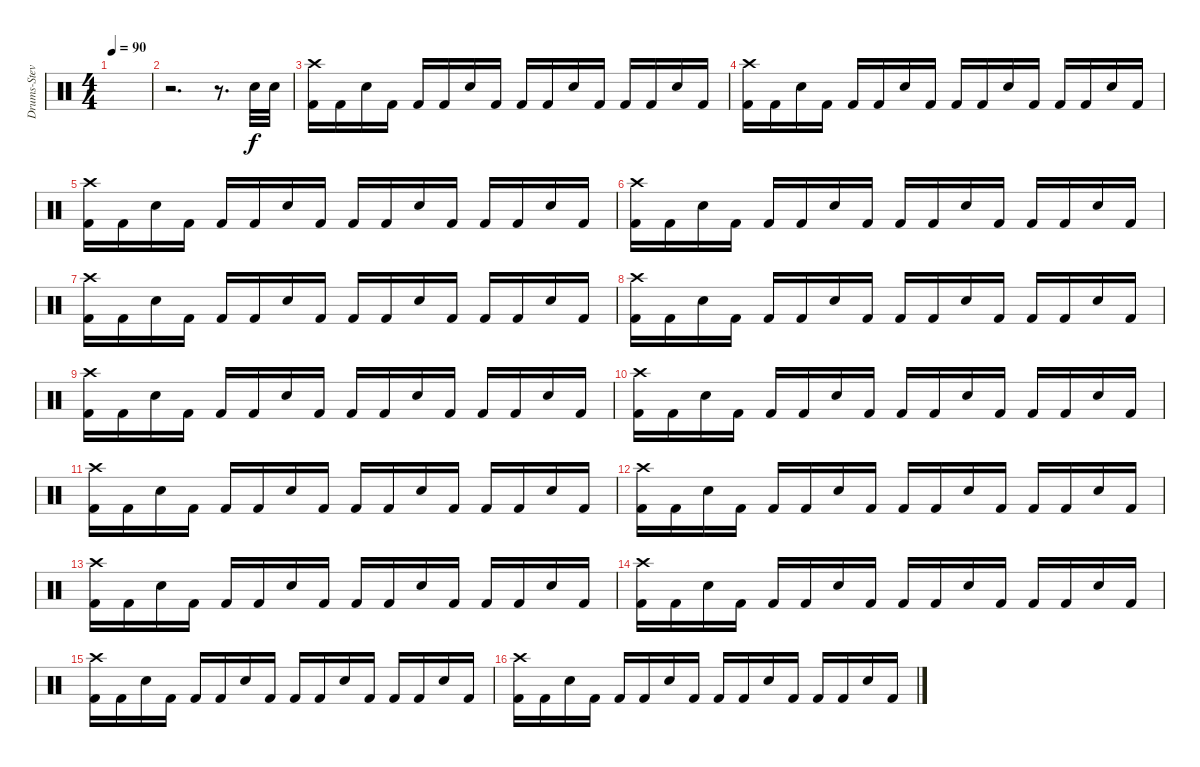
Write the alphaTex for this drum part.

\track ("Drums-Steve" "Drums-Stev") {instrument percussion}
\staff {score}
\articulation defaults
\ts (4 4)
\tempo 90
\clef neutral
\ks c
|
r.2{d} r.8{d} "Electric Snare (hit)".32 "Electric Snare (hit)".32 |
("Crash high (hit)" "Kick (hit) 2").16 "Kick (hit) 2".16 "Electric Snare (hit)".16 "Kick (hit) 2".16 "Kick (hit) 2".16 "Kick (hit) 2".16 "Electric Snare (hit)".16 "Kick (hit) 2".16 "Kick (hit) 2".16 "Kick (hit) 2".16 "Electric Snare (hit)".16 "Kick (hit) 2".16 "Kick (hit) 2".16 "Kick (hit) 2".16 "Electric Snare (hit)".16 "Kick (hit) 2".16 |
("Crash high (hit)" "Kick (hit) 2").16 "Kick (hit) 2".16 "Electric Snare (hit)".16 "Kick (hit) 2".16 "Kick (hit) 2".16 "Kick (hit) 2".16 "Electric Snare (hit)".16 "Kick (hit) 2".16 "Kick (hit) 2".16 "Kick (hit) 2".16 "Electric Snare (hit)".16 "Kick (hit) 2".16 "Kick (hit) 2".16 "Kick (hit) 2".16 "Electric Snare (hit)".16 "Kick (hit) 2".16 |
("Crash high (hit)" "Kick (hit) 2").16 "Kick (hit) 2".16 "Electric Snare (hit)".16 "Kick (hit) 2".16 "Kick (hit) 2".16 "Kick (hit) 2".16 "Electric Snare (hit)".16 "Kick (hit) 2".16 "Kick (hit) 2".16 "Kick (hit) 2".16 "Electric Snare (hit)".16 "Kick (hit) 2".16 "Kick (hit) 2".16 "Kick (hit) 2".16 "Electric Snare (hit)".16 "Kick (hit) 2".16 |
("Crash high (hit)" "Kick (hit) 2").16 "Kick (hit) 2".16 "Electric Snare (hit)".16 "Kick (hit) 2".16 "Kick (hit) 2".16 "Kick (hit) 2".16 "Electric Snare (hit)".16 "Kick (hit) 2".16 "Kick (hit) 2".16 "Kick (hit) 2".16 "Electric Snare (hit)".16 "Kick (hit) 2".16 "Kick (hit) 2".16 "Kick (hit) 2".16 "Electric Snare (hit)".16 "Kick (hit) 2".16 |
("Crash high (hit)" "Kick (hit) 2").16 "Kick (hit) 2".16 "Electric Snare (hit)".16 "Kick (hit) 2".16 "Kick (hit) 2".16 "Kick (hit) 2".16 "Electric Snare (hit)".16 "Kick (hit) 2".16 "Kick (hit) 2".16 "Kick (hit) 2".16 "Electric Snare (hit)".16 "Kick (hit) 2".16 "Kick (hit) 2".16 "Kick (hit) 2".16 "Electric Snare (hit)".16 "Kick (hit) 2".16 |
("Crash high (hit)" "Kick (hit) 2").16 "Kick (hit) 2".16 "Electric Snare (hit)".16 "Kick (hit) 2".16 "Kick (hit) 2".16 "Kick (hit) 2".16 "Electric Snare (hit)".16 "Kick (hit) 2".16 "Kick (hit) 2".16 "Kick (hit) 2".16 "Electric Snare (hit)".16 "Kick (hit) 2".16 "Kick (hit) 2".16 "Kick (hit) 2".16 "Electric Snare (hit)".16 "Kick (hit) 2".16 |
("Crash high (hit)" "Kick (hit) 2").16 "Kick (hit) 2".16 "Electric Snare (hit)".16 "Kick (hit) 2".16 "Kick (hit) 2".16 "Kick (hit) 2".16 "Electric Snare (hit)".16 "Kick (hit) 2".16 "Kick (hit) 2".16 "Kick (hit) 2".16 "Electric Snare (hit)".16 "Kick (hit) 2".16 "Kick (hit) 2".16 "Kick (hit) 2".16 "Electric Snare (hit)".16 "Kick (hit) 2".16 |
("Crash high (hit)" "Kick (hit) 2").16 "Kick (hit) 2".16 "Electric Snare (hit)".16 "Kick (hit) 2".16 "Kick (hit) 2".16 "Kick (hit) 2".16 "Electric Snare (hit)".16 "Kick (hit) 2".16 "Kick (hit) 2".16 "Kick (hit) 2".16 "Electric Snare (hit)".16 "Kick (hit) 2".16 "Kick (hit) 2".16 "Kick (hit) 2".16 "Electric Snare (hit)".16 "Kick (hit) 2".16 |
("Crash high (hit)" "Kick (hit) 2").16 "Kick (hit) 2".16 "Electric Snare (hit)".16 "Kick (hit) 2".16 "Kick (hit) 2".16 "Kick (hit) 2".16 "Electric Snare (hit)".16 "Kick (hit) 2".16 "Kick (hit) 2".16 "Kick (hit) 2".16 "Electric Snare (hit)".16 "Kick (hit) 2".16 "Kick (hit) 2".16 "Kick (hit) 2".16 "Electric Snare (hit)".16 "Kick (hit) 2".16 |
("Crash high (hit)" "Kick (hit) 2").16 "Kick (hit) 2".16 "Electric Snare (hit)".16 "Kick (hit) 2".16 "Kick (hit) 2".16 "Kick (hit) 2".16 "Electric Snare (hit)".16 "Kick (hit) 2".16 "Kick (hit) 2".16 "Kick (hit) 2".16 "Electric Snare (hit)".16 "Kick (hit) 2".16 "Kick (hit) 2".16 "Kick (hit) 2".16 "Electric Snare (hit)".16 "Kick (hit) 2".16 |
("Crash high (hit)" "Kick (hit) 2").16 "Kick (hit) 2".16 "Electric Snare (hit)".16 "Kick (hit) 2".16 "Kick (hit) 2".16 "Kick (hit) 2".16 "Electric Snare (hit)".16 "Kick (hit) 2".16 "Kick (hit) 2".16 "Kick (hit) 2".16 "Electric Snare (hit)".16 "Kick (hit) 2".16 "Kick (hit) 2".16 "Kick (hit) 2".16 "Electric Snare (hit)".16 "Kick (hit) 2".16 |
("Crash high (hit)" "Kick (hit) 2").16 "Kick (hit) 2".16 "Electric Snare (hit)".16 "Kick (hit) 2".16 "Kick (hit) 2".16 "Kick (hit) 2".16 "Electric Snare (hit)".16 "Kick (hit) 2".16 "Kick (hit) 2".16 "Kick (hit) 2".16 "Electric Snare (hit)".16 "Kick (hit) 2".16 "Kick (hit) 2".16 "Kick (hit) 2".16 "Electric Snare (hit)".16 "Kick (hit) 2".16 |
("Crash high (hit)" "Kick (hit) 2").16 "Kick (hit) 2".16 "Electric Snare (hit)".16 "Kick (hit) 2".16 "Kick (hit) 2".16 "Kick (hit) 2".16 "Electric Snare (hit)".16 "Kick (hit) 2".16 "Kick (hit) 2".16 "Kick (hit) 2".16 "Electric Snare (hit)".16 "Kick (hit) 2".16 "Kick (hit) 2".16 "Kick (hit) 2".16 "Electric Snare (hit)".16 "Kick (hit) 2".16 |
("Crash high (hit)" "Kick (hit) 2").16 "Kick (hit) 2".16 "Electric Snare (hit)".16 "Kick (hit) 2".16 "Kick (hit) 2".16 "Kick (hit) 2".16 "Electric Snare (hit)".16 "Kick (hit) 2".16 "Kick (hit) 2".16 "Kick (hit) 2".16 "Electric Snare (hit)".16 "Kick (hit) 2".16 "Kick (hit) 2".16 "Kick (hit) 2".16 "Electric Snare (hit)".16 "Kick (hit) 2".16
